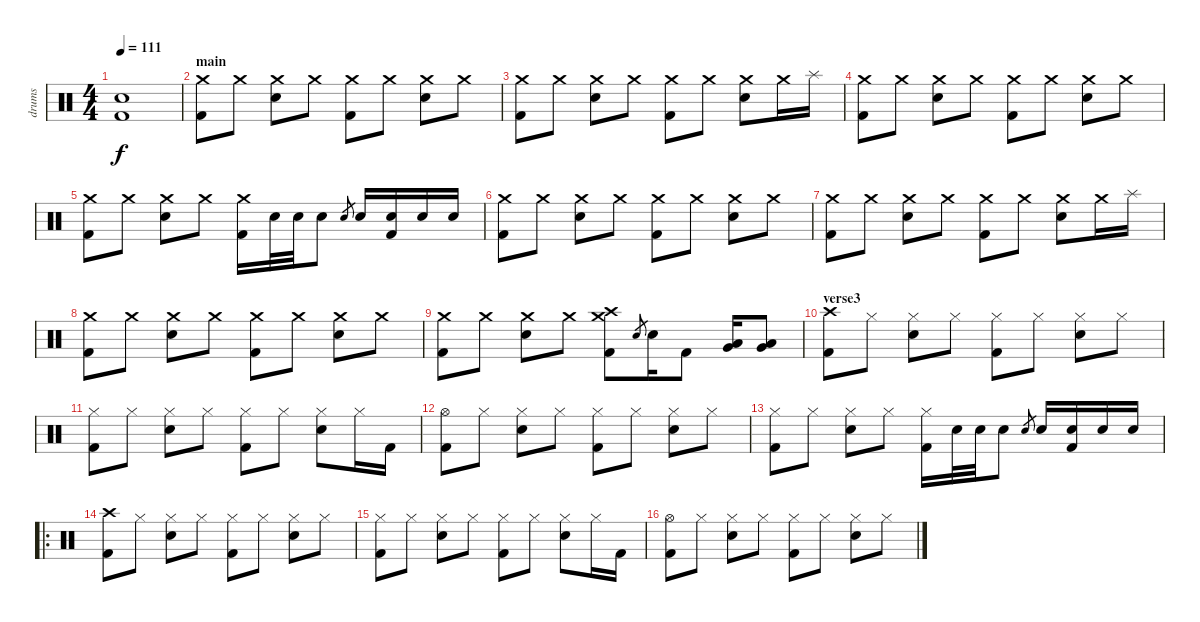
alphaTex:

\track ("drums" "drums") {instrument percussion}
\staff {score}
\articulation defaults
\ts (4 4)
\tempo 111
\clef neutral
\ks c
("Snare (hit)"{t} "Kick (hit) 2").1{dy f} |
\section ("" "main")
("Crash medium (hit)" "Kick (hit) 2").8 "Crash medium (hit)".8 ("Crash medium (hit)" "Electric Snare (hit)").8 "Crash medium (hit)".8 ("Crash medium (hit)" "Kick (hit) 2").8 "Crash medium (hit)".8 ("Crash medium (hit)" "Electric Snare (hit)").8 "Crash medium (hit)".8 |
("Crash medium (hit)" "Kick (hit) 2").8 "Crash medium (hit)".8 ("Crash medium (hit)" "Electric Snare (hit)").8 "Crash medium (hit)".8 ("Crash medium (hit)" "Kick (hit) 2").8 "Crash medium (hit)".8 ("Crash medium (hit)" "Electric Snare (hit)").8 "Crash medium (hit)".16 "Splash (hit)".16 |
("Crash medium (hit)" "Kick (hit) 2").8 "Crash medium (hit)".8 ("Crash medium (hit)" "Electric Snare (hit)").8 "Crash medium (hit)".8 ("Crash medium (hit)" "Kick (hit) 2").8 "Crash medium (hit)".8 ("Crash medium (hit)" "Electric Snare (hit)").8 "Crash medium (hit)".8 |
("Crash medium (hit)" "Kick (hit) 2").8 "Crash medium (hit)".8 ("Crash medium (hit)" "Electric Snare (hit)").8 "Crash medium (hit)".8 ("Crash medium (hit)" "Kick (hit) 2").16 "Electric Snare (hit)".32 "Electric Snare (hit)".32 "Electric Snare (hit)".8 "Electric Snare (hit)".8{gr} "Electric Snare (hit)".16 ("Electric Snare (hit)" "Kick (hit) 2").16 "Electric Snare (hit)".16 "Electric Snare (hit)".16 |
("Crash medium (hit)" "Kick (hit) 2").8 "Crash medium (hit)".8 ("Crash medium (hit)" "Electric Snare (hit)").8 "Crash medium (hit)".8 ("Crash medium (hit)" "Kick (hit) 2").8 "Crash medium (hit)".8 ("Crash medium (hit)" "Electric Snare (hit)").8 "Crash medium (hit)".8 |
("Crash medium (hit)" "Kick (hit) 2").8 "Crash medium (hit)".8 ("Crash medium (hit)" "Electric Snare (hit)").8 "Crash medium (hit)".8 ("Crash medium (hit)" "Kick (hit) 2").8 "Crash medium (hit)".8 ("Crash medium (hit)" "Electric Snare (hit)").8 "Crash medium (hit)".16 "Splash (hit)".16 |
("Crash medium (hit)" "Kick (hit) 2").8 "Crash medium (hit)".8 ("Crash medium (hit)" "Electric Snare (hit)").8 "Crash medium (hit)".8 ("Crash medium (hit)" "Kick (hit) 2").8 "Crash medium (hit)".8 ("Crash medium (hit)" "Electric Snare (hit)").8 "Crash medium (hit)".8 |
("Crash medium (hit)" "Kick (hit) 2").8 "Crash medium (hit)".8 ("Crash medium (hit)" "Electric Snare (hit)").8 "Crash medium (hit)".8 ("Crash medium (hit)" "Crash high (hit)" "Kick (hit) 2").8 "Electric Snare (hit)".8{gr} "Electric Snare (hit)".16 "Kick (hit) 2".8 ("Very Low Tom (hit)" "Low Tom (hit)").16 ("Very Low Tom (hit)" "Low Floor Tom (hit)").8 |
\section ("" "verse3")
("Crash high (hit)" "Kick (hit) 2").8 "Hi-Hat (closed)".8 ("Hi-Hat (closed)" "Electric Snare (hit)").8 "Hi-Hat (closed)".8 ("Hi-Hat (closed)" "Kick (hit) 2").8 "Hi-Hat (closed)".8 ("Hi-Hat (closed)" "Electric Snare (hit)").8 "Hi-Hat (closed)".8 |
("Hi-Hat (closed)" "Kick (hit) 2").8 "Hi-Hat (closed)".8 ("Hi-Hat (closed)" "Electric Snare (hit)").8 "Hi-Hat (closed)".8 ("Hi-Hat (closed)" "Kick (hit) 2").8 "Hi-Hat (closed)".8 ("Hi-Hat (closed)" "Electric Snare (hit)").8 "Hi-Hat (closed)".16 "Kick (hit) 2".16 |
("Hi-Hat (open)" "Kick (hit) 2").8 "Hi-Hat (closed)".8 ("Hi-Hat (closed)" "Electric Snare (hit)").8 "Hi-Hat (closed)".8 ("Hi-Hat (closed)" "Kick (hit) 2").8 "Hi-Hat (closed)".8 ("Hi-Hat (closed)" "Electric Snare (hit)").8 "Hi-Hat (closed)".8 |
("Hi-Hat (closed)" "Kick (hit) 2").8 "Hi-Hat (closed)".8 ("Hi-Hat (closed)" "Electric Snare (hit)").8 "Hi-Hat (closed)".8 ("Hi-Hat (closed)" "Kick (hit) 2").16 "Electric Snare (hit)".32 "Electric Snare (hit)".32 "Electric Snare (hit)".8 "Electric Snare (hit)".8{gr} "Electric Snare (hit)".16 ("Electric Snare (hit)" "Kick (hit) 2").16 "Electric Snare (hit)".16 "Electric Snare (hit)".16 |
\ro
("Crash high (hit)" "Kick (hit) 2").8 "Hi-Hat (closed)".8 ("Hi-Hat (closed)" "Electric Snare (hit)").8 "Hi-Hat (closed)".8 ("Hi-Hat (closed)" "Kick (hit) 2").8 "Hi-Hat (closed)".8 ("Hi-Hat (closed)" "Electric Snare (hit)").8 "Hi-Hat (closed)".8 |
("Hi-Hat (closed)" "Kick (hit) 2").8 "Hi-Hat (closed)".8 ("Hi-Hat (closed)" "Electric Snare (hit)").8 "Hi-Hat (closed)".8 ("Hi-Hat (closed)" "Kick (hit) 2").8 "Hi-Hat (closed)".8 ("Hi-Hat (closed)" "Electric Snare (hit)").8 "Hi-Hat (closed)".16 "Kick (hit) 2".16 |
("Hi-Hat (open)" "Kick (hit) 2").8 "Hi-Hat (closed)".8 ("Hi-Hat (closed)" "Electric Snare (hit)").8 "Hi-Hat (closed)".8 ("Hi-Hat (closed)" "Kick (hit) 2").8 "Hi-Hat (closed)".8 ("Hi-Hat (closed)" "Electric Snare (hit)").8 "Hi-Hat (closed)".8
